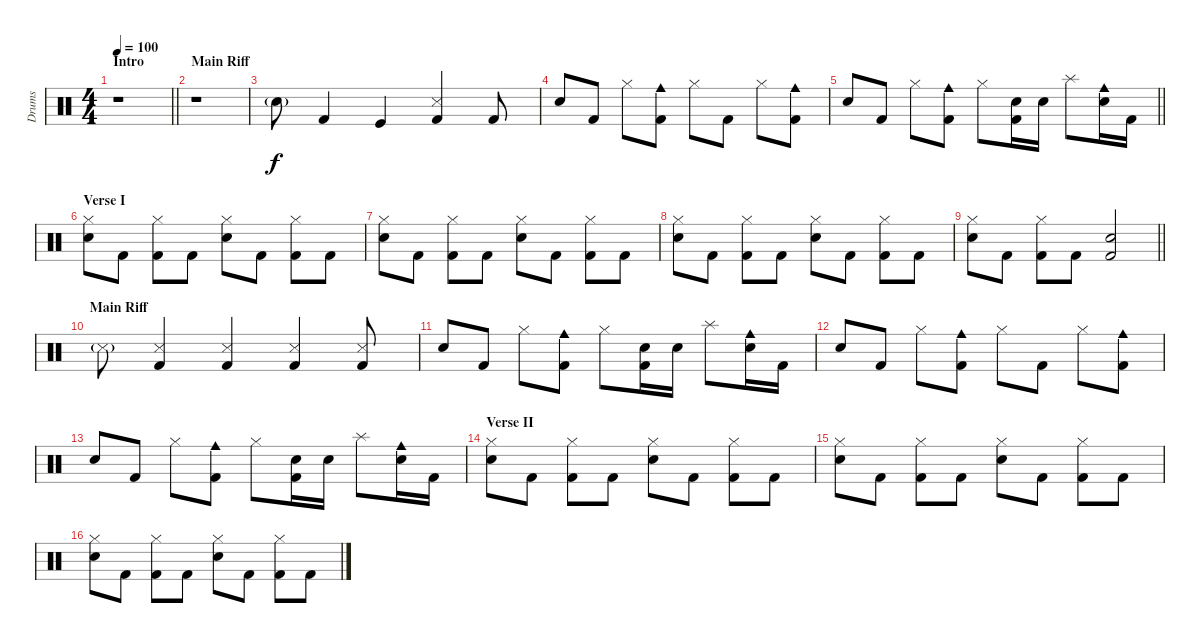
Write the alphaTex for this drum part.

\track ("Drums" "Drums") {instrument percussion}
\staff {score}
\articulation defaults
\ts (4 4)
\section ("" "Intro")
\tempo 100
\clef neutral
\barLineRight lightlight
\ks c
r.1{dy f} |
\section ("" "Main Riff")
r.1 |
"Snare (hit) 2"{g}.8 "Kick (hit) 2".4 "Kick (hit)".4 ("Snare (side stick) 3" "Kick (hit) 2").4 "Kick (hit) 2".8 |
"Snare (hit) 2".8 "Kick (hit) 2".8 "Hi-Hat (closed)".8 ("Cowbell medium (hit)" "Kick (hit) 2").8 "Hi-Hat (closed)".8 "Kick (hit) 2".8 "Hi-Hat (closed)".8 ("Cowbell medium (hit)" "Kick (hit) 2").8 |
\barLineRight lightlight "Snare (hit) 2".8 "Kick (hit) 2".8 "Hi-Hat (closed)".8
("Cowbell medium (hit)" "Kick (hit) 2").8 "Hi-Hat (closed)".8 ("Snare (hit) 2" "Kick (hit) 2").16 "Snare (hit) 2".16 "Splash (hit)".8 ("Cowbell medium (hit)" "Snare (hit) 2").16 "Kick (hit) 2".16 |
\section ("" "Verse I")
("Hi-Hat (closed)" "Snare (hit) 2").8 "Kick (hit) 2".8 ("Hi-Hat (closed)" "Kick (hit) 2").8 "Kick (hit) 2".8 ("Hi-Hat (closed)" "Snare (hit) 2").8 "Kick (hit) 2".8 ("Hi-Hat (closed)" "Kick (hit) 2").8 "Kick (hit) 2".8 |
("Hi-Hat (closed)" "Snare (hit) 2").8 "Kick (hit) 2".8 ("Hi-Hat (closed)" "Kick (hit) 2").8 "Kick (hit) 2".8 ("Hi-Hat (closed)" "Snare (hit) 2").8 "Kick (hit) 2".8 ("Hi-Hat (closed)" "Kick (hit) 2").8 "Kick (hit) 2".8 |
("Hi-Hat (closed)" "Snare (hit) 2").8 "Kick (hit) 2".8 ("Hi-Hat (closed)" "Kick (hit) 2").8 "Kick (hit) 2".8 ("Hi-Hat (closed)" "Snare (hit) 2").8 "Kick (hit) 2".8 ("Hi-Hat (closed)" "Kick (hit) 2").8 "Kick (hit) 2".8 |
\barLineRight lightlight
("Hi-Hat (closed)" "Snare (hit) 2").8 "Kick (hit) 2".8 ("Hi-Hat (closed)" "Kick (hit) 2").8 "Kick (hit) 2".8 ("Snare (hit) 2" "Kick (hit) 2").2 |
\section ("" "Main Riff")
"Snare (side stick) 3"{g}.8 ("Snare (side stick) 3" "Kick (hit) 2").4 ("Snare (side stick) 3" "Kick (hit) 2").4 ("Snare (side stick) 3" "Kick (hit) 2").4 ("Snare (side stick) 3" "Kick (hit) 2").8 |
"Snare (hit) 2".8 "Kick (hit) 2".8 "Hi-Hat (closed)".8 ("Cowbell medium (hit)" "Kick (hit) 2").8 "Hi-Hat (closed)".8 ("Snare (hit) 2" "Kick (hit) 2").16 "Snare (hit) 2".16 "Splash (hit)".8 ("Cowbell medium (hit)" "Snare (hit) 2").16 "Kick (hit) 2".16 |
"Snare (hit) 2".8 "Kick (hit) 2".8 "Hi-Hat (closed)".8 ("Cowbell medium (hit)" "Kick (hit) 2").8 "Hi-Hat (closed)".8 "Kick (hit) 2".8 "Hi-Hat (closed)".8 ("Cowbell medium (hit)" "Kick (hit) 2").8 |
"Snare (hit) 2".8 "Kick (hit) 2".8 "Hi-Hat (closed)".8 ("Cowbell medium (hit)" "Kick (hit) 2").8 "Hi-Hat (closed)".8 ("Snare (hit) 2" "Kick (hit) 2").16 "Snare (hit) 2".16 "Splash (hit)".8 ("Cowbell medium (hit)" "Snare (hit) 2").16 "Kick (hit) 2".16 |
\section ("" "Verse II")
("Hi-Hat (closed)" "Snare (hit) 2").8 "Kick (hit) 2".8 ("Hi-Hat (closed)" "Kick (hit) 2").8 "Kick (hit) 2".8 ("Hi-Hat (closed)" "Snare (hit) 2").8 "Kick (hit) 2".8 ("Hi-Hat (closed)" "Kick (hit) 2").8 "Kick (hit) 2".8 |
("Hi-Hat (closed)" "Snare (hit) 2").8 "Kick (hit) 2".8 ("Hi-Hat (closed)" "Kick (hit) 2").8 "Kick (hit) 2".8 ("Hi-Hat (closed)" "Snare (hit) 2").8 "Kick (hit) 2".8 ("Hi-Hat (closed)" "Kick (hit) 2").8 "Kick (hit) 2".8 |
("Hi-Hat (closed)" "Snare (hit) 2").8 "Kick (hit) 2".8 ("Hi-Hat (closed)" "Kick (hit) 2").8 "Kick (hit) 2".8 ("Hi-Hat (closed)" "Snare (hit) 2").8 "Kick (hit) 2".8 ("Hi-Hat (closed)" "Kick (hit) 2").8 "Kick (hit) 2".8
